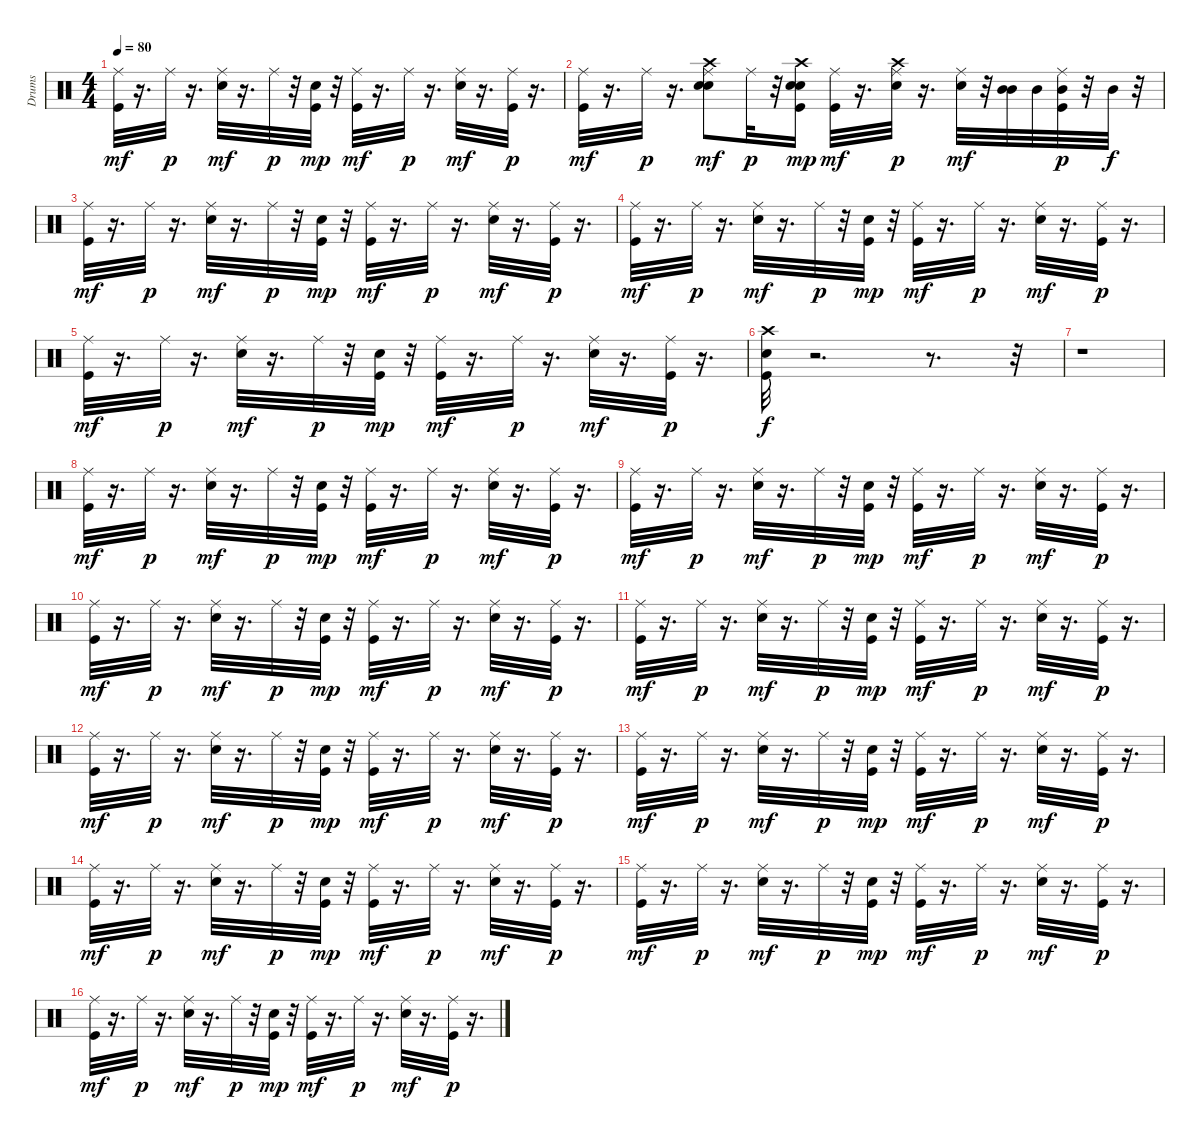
\track ("Drums" "Drums") {instrument percussion}
\staff {score}
\articulation defaults
\ts (4 4)
\tempo 80
\clef neutral
\ks c
("Kick (hit)" "Ride (middle)").32{dy mf} r.16{d} "Ride (middle)".32{dy p} r.16{d} ("Snare (hit) 2" "Ride (middle)").32{dy mf} r.16{d} "Ride (middle)".32{dy p} r.32 ("Kick (hit)" "Snare (hit) 2").32{dy mp} r.32 ("Kick (hit)" "Ride (middle)").32{dy mf} r.16{d} "Ride (middle)".32{dy p} r.16{d} ("Snare (hit) 2" "Ride (middle)").32{dy mf} r.16{d} ("Kick (hit)" "Ride (middle)").32{dy p} r.16{d} |
("Kick (hit)" "Ride (middle)").32{dy mf} r.16{d} "Ride (middle)".32{dy p} r.16{d} ("Snare (hit) 2" "Crash high (hit)" "Snare (hit) 2" "Ride (middle)").8{dy mf} "Ride (middle)".32{dy p} r.32 ("Crash high (hit)" "Snare (hit) 2" "Kick (hit)" "Snare (hit) 2").16{dy mp} ("Kick (hit)" "Ride (middle)").32{dy mf} r.16{d} ("Crash high (hit)" "Snare (hit) 2" "Ride (middle)").32{dy p} r.16{d} ("Snare (hit) 2" "Ride (middle)").32{dy mf} r.32 ("Mid Tom (hit)" "Mid Tom (hit)").32 "Mid Tom (hit)".32 ("Mid Tom (hit)" "Kick (hit)" "Ride (middle)").32{dy p} r.32 "Mid Tom (hit)".32{dy f} r.32 |
("Kick (hit)" "Ride (middle)").32{dy mf} r.16{d} "Ride (middle)".32{dy p} r.16{d} ("Snare (hit) 2" "Ride (middle)").32{dy mf} r.16{d} "Ride (middle)".32{dy p} r.32 ("Kick (hit)" "Snare (hit) 2").32{dy mp} r.32 ("Kick (hit)" "Ride (middle)").32{dy mf} r.16{d} "Ride (middle)".32{dy p} r.16{d} ("Snare (hit) 2" "Ride (middle)").32{dy mf} r.16{d} ("Kick (hit)" "Ride (middle)").32{dy p} r.16{d} |
("Kick (hit)" "Ride (middle)").32{dy mf} r.16{d} "Ride (middle)".32{dy p} r.16{d} ("Snare (hit) 2" "Ride (middle)").32{dy mf} r.16{d} "Ride (middle)".32{dy p} r.32 ("Kick (hit)" "Snare (hit) 2").32{dy mp} r.32 ("Kick (hit)" "Ride (middle)").32{dy mf} r.16{d} "Ride (middle)".32{dy p} r.16{d} ("Snare (hit) 2" "Ride (middle)").32{dy mf} r.16{d} ("Kick (hit)" "Ride (middle)").32{dy p} r.16{d} |
("Kick (hit)" "Ride (middle)").32{dy mf} r.16{d} "Ride (middle)".32{dy p} r.16{d} ("Snare (hit) 2" "Ride (middle)").32{dy mf} r.16{d} "Ride (middle)".32{dy p} r.32 ("Kick (hit)" "Snare (hit) 2").32{dy mp} r.32 ("Kick (hit)" "Ride (middle)").32{dy mf} r.16{d} "Ride (middle)".32{dy p} r.16{d} ("Snare (hit) 2" "Ride (middle)").32{dy mf} r.16{d} ("Kick (hit)" "Ride (middle)").32{dy p} r.16{d} |
("Kick (hit)" "Snare (hit) 2" "Crash high (hit)").32{dy f} r.2{d} r.8{d} r.32 |
r.1 |
("Kick (hit)" "Ride (middle)").32{dy mf} r.16{d} "Ride (middle)".32{dy p} r.16{d} ("Snare (hit) 2" "Ride (middle)").32{dy mf} r.16{d} "Ride (middle)".32{dy p} r.32 ("Kick (hit)" "Snare (hit) 2").32{dy mp} r.32 ("Kick (hit)" "Ride (middle)").32{dy mf} r.16{d} "Ride (middle)".32{dy p} r.16{d} ("Snare (hit) 2" "Ride (middle)").32{dy mf} r.16{d} ("Kick (hit)" "Ride (middle)").32{dy p} r.16{d} |
("Kick (hit)" "Ride (middle)").32{dy mf} r.16{d} "Ride (middle)".32{dy p} r.16{d} ("Snare (hit) 2" "Ride (middle)").32{dy mf} r.16{d} "Ride (middle)".32{dy p} r.32 ("Kick (hit)" "Snare (hit) 2").32{dy mp} r.32 ("Kick (hit)" "Ride (middle)").32{dy mf} r.16{d} "Ride (middle)".32{dy p} r.16{d} ("Snare (hit) 2" "Ride (middle)").32{dy mf} r.16{d} ("Kick (hit)" "Ride (middle)").32{dy p} r.16{d} |
("Kick (hit)" "Ride (middle)").32{dy mf} r.16{d} "Ride (middle)".32{dy p} r.16{d} ("Snare (hit) 2" "Ride (middle)").32{dy mf} r.16{d} "Ride (middle)".32{dy p} r.32 ("Kick (hit)" "Snare (hit) 2").32{dy mp} r.32 ("Kick (hit)" "Ride (middle)").32{dy mf} r.16{d} "Ride (middle)".32{dy p} r.16{d} ("Snare (hit) 2" "Ride (middle)").32{dy mf} r.16{d} ("Kick (hit)" "Ride (middle)").32{dy p} r.16{d} |
("Kick (hit)" "Ride (middle)").32{dy mf} r.16{d} "Ride (middle)".32{dy p} r.16{d} ("Snare (hit) 2" "Ride (middle)").32{dy mf} r.16{d} "Ride (middle)".32{dy p} r.32 ("Kick (hit)" "Snare (hit) 2").32{dy mp} r.32 ("Kick (hit)" "Ride (middle)").32{dy mf} r.16{d} "Ride (middle)".32{dy p} r.16{d} ("Snare (hit) 2" "Ride (middle)").32{dy mf} r.16{d} ("Kick (hit)" "Ride (middle)").32{dy p} r.16{d} |
("Kick (hit)" "Ride (middle)").32{dy mf} r.16{d} "Ride (middle)".32{dy p} r.16{d} ("Snare (hit) 2" "Ride (middle)").32{dy mf} r.16{d} "Ride (middle)".32{dy p} r.32 ("Kick (hit)" "Snare (hit) 2").32{dy mp} r.32 ("Kick (hit)" "Ride (middle)").32{dy mf} r.16{d} "Ride (middle)".32{dy p} r.16{d} ("Snare (hit) 2" "Ride (middle)").32{dy mf} r.16{d} ("Kick (hit)" "Ride (middle)").32{dy p} r.16{d} |
("Kick (hit)" "Ride (middle)").32{dy mf} r.16{d} "Ride (middle)".32{dy p} r.16{d} ("Snare (hit) 2" "Ride (middle)").32{dy mf} r.16{d} "Ride (middle)".32{dy p} r.32 ("Kick (hit)" "Snare (hit) 2").32{dy mp} r.32 ("Kick (hit)" "Ride (middle)").32{dy mf} r.16{d} "Ride (middle)".32{dy p} r.16{d} ("Snare (hit) 2" "Ride (middle)").32{dy mf} r.16{d} ("Kick (hit)" "Ride (middle)").32{dy p} r.16{d} |
("Kick (hit)" "Ride (middle)").32{dy mf} r.16{d} "Ride (middle)".32{dy p} r.16{d} ("Snare (hit) 2" "Ride (middle)").32{dy mf} r.16{d} "Ride (middle)".32{dy p} r.32 ("Kick (hit)" "Snare (hit) 2").32{dy mp} r.32 ("Kick (hit)" "Ride (middle)").32{dy mf} r.16{d} "Ride (middle)".32{dy p} r.16{d} ("Snare (hit) 2" "Ride (middle)").32{dy mf} r.16{d} ("Kick (hit)" "Ride (middle)").32{dy p} r.16{d} |
("Kick (hit)" "Ride (middle)").32{dy mf} r.16{d} "Ride (middle)".32{dy p} r.16{d} ("Snare (hit) 2" "Ride (middle)").32{dy mf} r.16{d} "Ride (middle)".32{dy p} r.32 ("Kick (hit)" "Snare (hit) 2").32{dy mp} r.32 ("Kick (hit)" "Ride (middle)").32{dy mf} r.16{d} "Ride (middle)".32{dy p} r.16{d} ("Snare (hit) 2" "Ride (middle)").32{dy mf} r.16{d} ("Kick (hit)" "Ride (middle)").32{dy p} r.16{d} |
("Kick (hit)" "Ride (middle)").32{dy mf} r.16{d} "Ride (middle)".32{dy p} r.16{d} ("Snare (hit) 2" "Ride (middle)").32{dy mf} r.16{d} "Ride (middle)".32{dy p} r.32 ("Kick (hit)" "Snare (hit) 2").32{dy mp} r.32 ("Kick (hit)" "Ride (middle)").32{dy mf} r.16{d} "Ride (middle)".32{dy p} r.16{d} ("Snare (hit) 2" "Ride (middle)").32{dy mf} r.16{d} ("Kick (hit)" "Ride (middle)").32{dy p} r.16{d}
